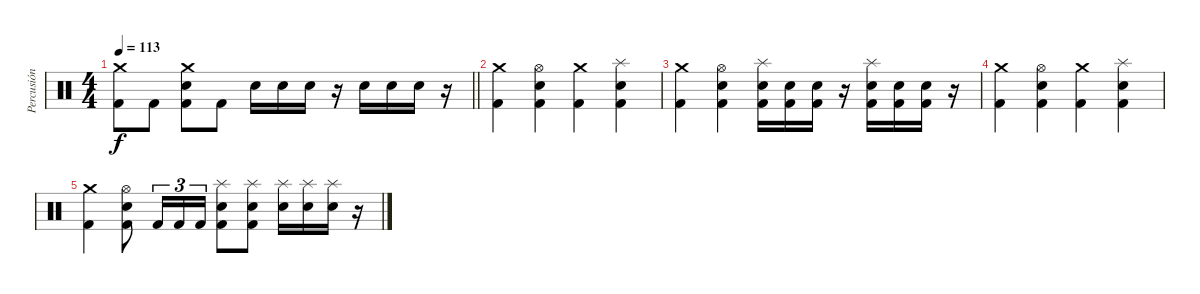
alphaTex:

\track ("Percusión" "Percusión") {instrument percussion}
\staff {score}
\articulation defaults
\ts (4 4)
\tempo 113
\clef neutral
\barLineRight lightlight
\ks c
("Crash medium (hit)" "Kick (hit) 2").8{dy f} "Kick (hit) 2".8 ("Crash medium (hit)" "Electric Snare (hit)" "Kick (hit) 2").8 "Kick (hit) 2".8 "Electric Snare (hit)".16 "Electric Snare (hit)".16 "Electric Snare (hit)".16 r.16 "Electric Snare (hit)".16 "Electric Snare (hit)".16 "Electric Snare (hit)".16 r.16 |
("Crash medium (hit)" "Kick (hit) 2").4 ("Hi-Hat (open)" "Electric Snare (hit)" "Kick (hit) 2").4 ("Crash medium (hit)" "Kick (hit) 2").4 ("Splash (hit)" "Electric Snare (hit)" "Kick (hit) 2").4 |
("Crash medium (hit)" "Kick (hit) 2").4 ("Hi-Hat (open)" "Electric Snare (hit)" "Kick (hit) 2").4 ("Splash (hit)" "Electric Snare (hit)" "Kick (hit) 2").16 ("Electric Snare (hit)" "Kick (hit) 2").16 ("Electric Snare (hit)" "Kick (hit) 2").16 r.16 ("Splash (hit)" "Electric Snare (hit)" "Kick (hit) 2").16 ("Electric Snare (hit)" "Kick (hit) 2").16 ("Electric Snare (hit)" "Kick (hit) 2").16 r.16 |
("Crash medium (hit)" "Kick (hit) 2").4 ("Hi-Hat (open)" "Electric Snare (hit)" "Kick (hit) 2").4 ("Crash medium (hit)" "Kick (hit) 2").4 ("Splash (hit)" "Electric Snare (hit)" "Kick (hit) 2").4 |
("Crash medium (hit)" "Kick (hit) 2").4 ("Hi-Hat (open)" "Electric Snare (hit)" "Kick (hit) 2").8 "Kick (hit) 2".16{tu (3 2)} "Kick (hit) 2".16{tu (3 2)} "Kick (hit) 2".16{tu (3 2)} ("Splash (hit)" "Electric Snare (hit)" "Kick (hit) 2").8 ("Splash (hit)" "Electric Snare (hit)" "Kick (hit) 2").8 ("Splash (hit)" "Electric Snare (hit)").16 ("Splash (hit)" "Electric Snare (hit)").16 ("Splash (hit)" "Electric Snare (hit)").16 r.16
